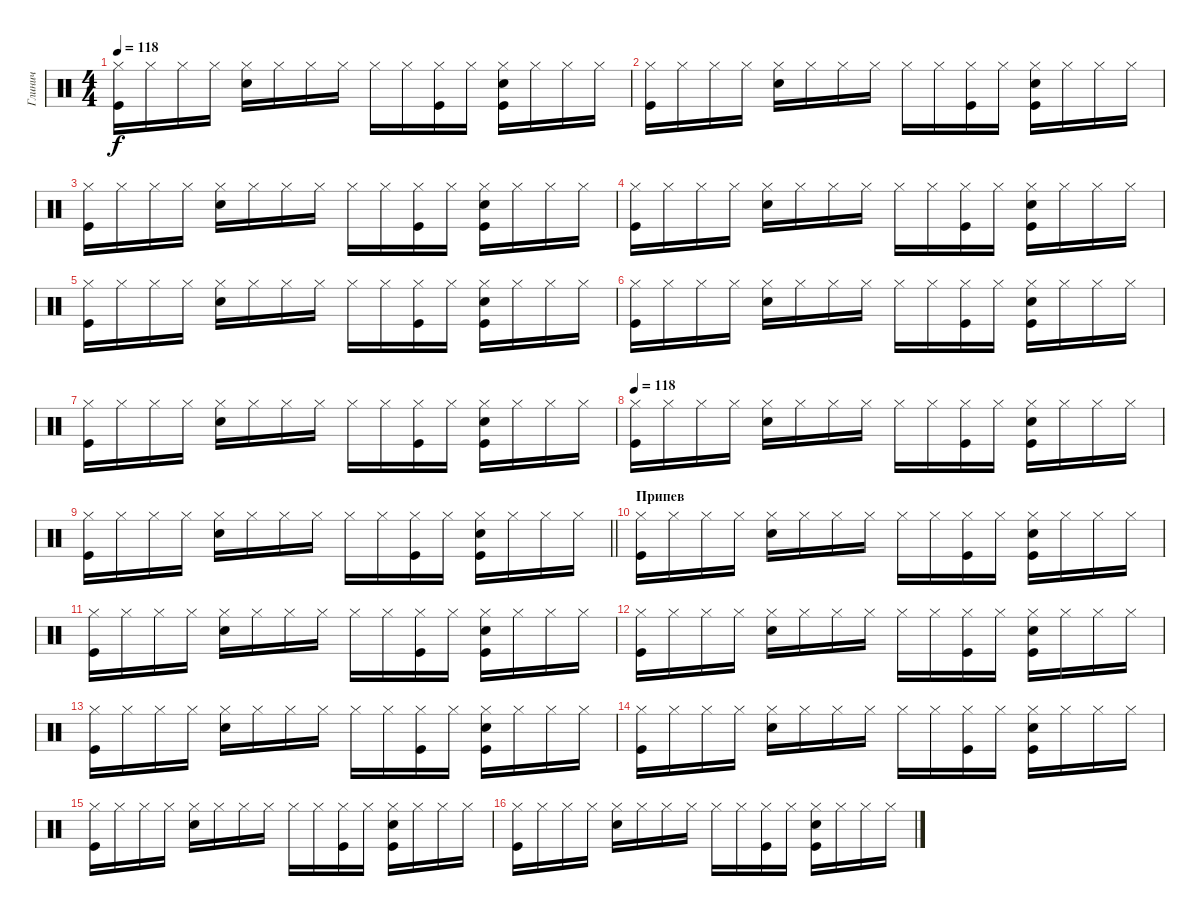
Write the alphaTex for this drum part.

\track ("Глинич" "Глинич") {instrument percussion}
\staff {score}
\articulation defaults
\ts (4 4)
\tempo 118
\clef neutral
\ks c
("Hi-Hat (closed)" "Kick (hit)").16{dy f} "Hi-Hat (closed)".16 "Hi-Hat (closed)".16 "Hi-Hat (closed)".16 ("Hi-Hat (closed)" "Snare (hit) 2").16 "Hi-Hat (closed)".16 "Hi-Hat (closed)".16 "Hi-Hat (closed)".16 "Hi-Hat (closed)".16 "Hi-Hat (closed)".16 ("Hi-Hat (closed)" "Kick (hit)").16 "Hi-Hat (closed)".16 ("Hi-Hat (closed)" "Snare (hit) 2" "Kick (hit)").16 "Hi-Hat (closed)".16 "Hi-Hat (closed)".16 "Hi-Hat (closed)".16 |
("Hi-Hat (closed)" "Kick (hit)").16 "Hi-Hat (closed)".16 "Hi-Hat (closed)".16 "Hi-Hat (closed)".16 ("Hi-Hat (closed)" "Snare (hit) 2").16 "Hi-Hat (closed)".16 "Hi-Hat (closed)".16 "Hi-Hat (closed)".16 "Hi-Hat (closed)".16 "Hi-Hat (closed)".16 ("Hi-Hat (closed)" "Kick (hit)").16 "Hi-Hat (closed)".16 ("Hi-Hat (closed)" "Snare (hit) 2" "Kick (hit)").16 "Hi-Hat (closed)".16 "Hi-Hat (closed)".16 "Hi-Hat (closed)".16 |
("Hi-Hat (closed)" "Kick (hit)").16 "Hi-Hat (closed)".16 "Hi-Hat (closed)".16 "Hi-Hat (closed)".16 ("Hi-Hat (closed)" "Snare (hit) 2").16 "Hi-Hat (closed)".16 "Hi-Hat (closed)".16 "Hi-Hat (closed)".16 "Hi-Hat (closed)".16 "Hi-Hat (closed)".16 ("Hi-Hat (closed)" "Kick (hit)").16 "Hi-Hat (closed)".16 ("Hi-Hat (closed)" "Snare (hit) 2" "Kick (hit)").16 "Hi-Hat (closed)".16 "Hi-Hat (closed)".16 "Hi-Hat (closed)".16 |
("Hi-Hat (closed)" "Kick (hit)").16 "Hi-Hat (closed)".16 "Hi-Hat (closed)".16 "Hi-Hat (closed)".16 ("Hi-Hat (closed)" "Snare (hit) 2").16 "Hi-Hat (closed)".16 "Hi-Hat (closed)".16 "Hi-Hat (closed)".16 "Hi-Hat (closed)".16 "Hi-Hat (closed)".16 ("Hi-Hat (closed)" "Kick (hit)").16 "Hi-Hat (closed)".16 ("Hi-Hat (closed)" "Snare (hit) 2" "Kick (hit)").16 "Hi-Hat (closed)".16 "Hi-Hat (closed)".16 "Hi-Hat (closed)".16 |
("Hi-Hat (closed)" "Kick (hit)").16 "Hi-Hat (closed)".16 "Hi-Hat (closed)".16 "Hi-Hat (closed)".16 ("Hi-Hat (closed)" "Snare (hit) 2").16 "Hi-Hat (closed)".16 "Hi-Hat (closed)".16 "Hi-Hat (closed)".16 "Hi-Hat (closed)".16 "Hi-Hat (closed)".16 ("Hi-Hat (closed)" "Kick (hit)").16 "Hi-Hat (closed)".16 ("Hi-Hat (closed)" "Snare (hit) 2" "Kick (hit)").16 "Hi-Hat (closed)".16 "Hi-Hat (closed)".16 "Hi-Hat (closed)".16 |
("Hi-Hat (closed)" "Kick (hit)").16 "Hi-Hat (closed)".16 "Hi-Hat (closed)".16 "Hi-Hat (closed)".16 ("Hi-Hat (closed)" "Snare (hit) 2").16 "Hi-Hat (closed)".16 "Hi-Hat (closed)".16 "Hi-Hat (closed)".16 "Hi-Hat (closed)".16 "Hi-Hat (closed)".16 ("Hi-Hat (closed)" "Kick (hit)").16 "Hi-Hat (closed)".16 ("Hi-Hat (closed)" "Snare (hit) 2" "Kick (hit)").16 "Hi-Hat (closed)".16 "Hi-Hat (closed)".16 "Hi-Hat (closed)".16 |
("Hi-Hat (closed)" "Kick (hit)").16 "Hi-Hat (closed)".16 "Hi-Hat (closed)".16 "Hi-Hat (closed)".16 ("Hi-Hat (closed)" "Snare (hit) 2").16 "Hi-Hat (closed)".16 "Hi-Hat (closed)".16 "Hi-Hat (closed)".16 "Hi-Hat (closed)".16 "Hi-Hat (closed)".16 ("Hi-Hat (closed)" "Kick (hit)").16 "Hi-Hat (closed)".16 ("Hi-Hat (closed)" "Snare (hit) 2" "Kick (hit)").16 "Hi-Hat (closed)".16 "Hi-Hat (closed)".16 "Hi-Hat (closed)".16 |
\tempo 118
("Hi-Hat (closed)" "Kick (hit)").16 "Hi-Hat (closed)".16 "Hi-Hat (closed)".16 "Hi-Hat (closed)".16 ("Hi-Hat (closed)" "Snare (hit) 2").16 "Hi-Hat (closed)".16 "Hi-Hat (closed)".16 "Hi-Hat (closed)".16 "Hi-Hat (closed)".16 "Hi-Hat (closed)".16 ("Hi-Hat (closed)" "Kick (hit)").16 "Hi-Hat (closed)".16 ("Hi-Hat (closed)" "Snare (hit) 2" "Kick (hit)").16 "Hi-Hat (closed)".16 "Hi-Hat (closed)".16 "Hi-Hat (closed)".16 |
\barLineRight lightlight
("Hi-Hat (closed)" "Kick (hit)").16 "Hi-Hat (closed)".16 "Hi-Hat (closed)".16 "Hi-Hat (closed)".16 ("Hi-Hat (closed)" "Snare (hit) 2").16 "Hi-Hat (closed)".16 "Hi-Hat (closed)".16 "Hi-Hat (closed)".16 "Hi-Hat (closed)".16 "Hi-Hat (closed)".16 ("Hi-Hat (closed)" "Kick (hit)").16 "Hi-Hat (closed)".16 ("Hi-Hat (closed)" "Snare (hit) 2" "Kick (hit)").16 "Hi-Hat (closed)".16 "Hi-Hat (closed)".16 "Hi-Hat (closed)".16 |
\section ("" "Припев")
("Hi-Hat (closed)" "Kick (hit)").16 "Hi-Hat (closed)".16 "Hi-Hat (closed)".16 "Hi-Hat (closed)".16 ("Hi-Hat (closed)" "Snare (hit) 2").16 "Hi-Hat (closed)".16 "Hi-Hat (closed)".16 "Hi-Hat (closed)".16 "Hi-Hat (closed)".16 "Hi-Hat (closed)".16 ("Hi-Hat (closed)" "Kick (hit)").16 "Hi-Hat (closed)".16 ("Hi-Hat (closed)" "Snare (hit) 2" "Kick (hit)").16 "Hi-Hat (closed)".16 "Hi-Hat (closed)".16 "Hi-Hat (closed)".16 |
("Hi-Hat (closed)" "Kick (hit)").16 "Hi-Hat (closed)".16 "Hi-Hat (closed)".16 "Hi-Hat (closed)".16 ("Hi-Hat (closed)" "Snare (hit) 2").16 "Hi-Hat (closed)".16 "Hi-Hat (closed)".16 "Hi-Hat (closed)".16 "Hi-Hat (closed)".16 "Hi-Hat (closed)".16 ("Hi-Hat (closed)" "Kick (hit)").16 "Hi-Hat (closed)".16 ("Hi-Hat (closed)" "Snare (hit) 2" "Kick (hit)").16 "Hi-Hat (closed)".16 "Hi-Hat (closed)".16 "Hi-Hat (closed)".16 |
("Hi-Hat (closed)" "Kick (hit)").16 "Hi-Hat (closed)".16 "Hi-Hat (closed)".16 "Hi-Hat (closed)".16 ("Hi-Hat (closed)" "Snare (hit) 2").16 "Hi-Hat (closed)".16 "Hi-Hat (closed)".16 "Hi-Hat (closed)".16 "Hi-Hat (closed)".16 "Hi-Hat (closed)".16 ("Hi-Hat (closed)" "Kick (hit)").16 "Hi-Hat (closed)".16 ("Hi-Hat (closed)" "Snare (hit) 2" "Kick (hit)").16 "Hi-Hat (closed)".16 "Hi-Hat (closed)".16 "Hi-Hat (closed)".16 |
("Hi-Hat (closed)" "Kick (hit)").16 "Hi-Hat (closed)".16 "Hi-Hat (closed)".16 "Hi-Hat (closed)".16 ("Hi-Hat (closed)" "Snare (hit) 2").16 "Hi-Hat (closed)".16 "Hi-Hat (closed)".16 "Hi-Hat (closed)".16 "Hi-Hat (closed)".16 "Hi-Hat (closed)".16 ("Hi-Hat (closed)" "Kick (hit)").16 "Hi-Hat (closed)".16 ("Hi-Hat (closed)" "Snare (hit) 2" "Kick (hit)").16 "Hi-Hat (closed)".16 "Hi-Hat (closed)".16 "Hi-Hat (closed)".16 |
("Hi-Hat (closed)" "Kick (hit)").16 "Hi-Hat (closed)".16 "Hi-Hat (closed)".16 "Hi-Hat (closed)".16 ("Hi-Hat (closed)" "Snare (hit) 2").16 "Hi-Hat (closed)".16 "Hi-Hat (closed)".16 "Hi-Hat (closed)".16 "Hi-Hat (closed)".16 "Hi-Hat (closed)".16 ("Hi-Hat (closed)" "Kick (hit)").16 "Hi-Hat (closed)".16 ("Hi-Hat (closed)" "Snare (hit) 2" "Kick (hit)").16 "Hi-Hat (closed)".16 "Hi-Hat (closed)".16 "Hi-Hat (closed)".16 |
("Hi-Hat (closed)" "Kick (hit)").16 "Hi-Hat (closed)".16 "Hi-Hat (closed)".16 "Hi-Hat (closed)".16 ("Hi-Hat (closed)" "Snare (hit) 2").16 "Hi-Hat (closed)".16 "Hi-Hat (closed)".16 "Hi-Hat (closed)".16 "Hi-Hat (closed)".16 "Hi-Hat (closed)".16 ("Hi-Hat (closed)" "Kick (hit)").16 "Hi-Hat (closed)".16 ("Hi-Hat (closed)" "Snare (hit) 2" "Kick (hit)").16 "Hi-Hat (closed)".16 "Hi-Hat (closed)".16 "Hi-Hat (closed)".16 |
("Hi-Hat (closed)" "Kick (hit)").16 "Hi-Hat (closed)".16 "Hi-Hat (closed)".16 "Hi-Hat (closed)".16 ("Hi-Hat (closed)" "Snare (hit) 2").16 "Hi-Hat (closed)".16 "Hi-Hat (closed)".16 "Hi-Hat (closed)".16 "Hi-Hat (closed)".16 "Hi-Hat (closed)".16 ("Hi-Hat (closed)" "Kick (hit)").16 "Hi-Hat (closed)".16 ("Hi-Hat (closed)" "Snare (hit) 2" "Kick (hit)").16 "Hi-Hat (closed)".16 "Hi-Hat (closed)".16 "Hi-Hat (closed)".16
